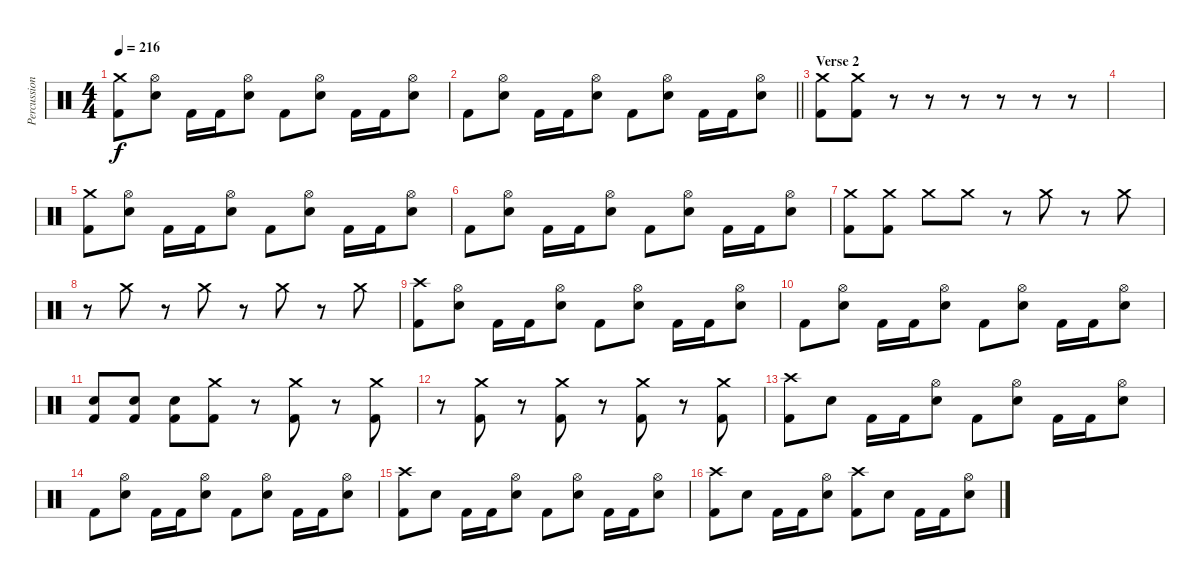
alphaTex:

\track ("Percussions" "Percussion") {instrument percussion}
\staff {score}
\articulation defaults
\ts (4 4)
\tempo 216
\clef neutral
\ks c
("Crash medium (hit)" "Kick (hit) 2").8{dy f} ("Hi-Hat (open)" "Electric Snare (hit)").8 "Kick (hit) 2".16 "Kick (hit) 2".16 ("Hi-Hat (open)" "Electric Snare (hit)").8 "Kick (hit) 2".8 ("Hi-Hat (open)" "Electric Snare (hit)").8 "Kick (hit) 2".16 "Kick (hit) 2".16 ("Hi-Hat (open)" "Electric Snare (hit)").8 |
\barLineRight lightlight "Kick (hit) 2".8
("Hi-Hat (open)" "Electric Snare (hit)").8 "Kick (hit) 2".16 "Kick (hit) 2".16 ("Hi-Hat (open)" "Electric Snare (hit)").8 "Kick (hit) 2".8 ("Hi-Hat (open)" "Electric Snare (hit)").8 "Kick (hit) 2".16 "Kick (hit) 2".16 ("Hi-Hat (open)" "Electric Snare (hit)").8 |
\section ("" "Verse 2")
("Crash medium (hit)" "Kick (hit) 2").8 ("Crash medium (hit)" "Kick (hit) 2").8 r.8 r.8 r.8 r.8 r.8 r.8 |
|
("Crash medium (hit)" "Kick (hit) 2").8 ("Hi-Hat (open)" "Electric Snare (hit)").8 "Kick (hit) 2".16 "Kick (hit) 2".16 ("Hi-Hat (open)" "Electric Snare (hit)").8 "Kick (hit) 2".8 ("Hi-Hat (open)" "Electric Snare (hit)").8 "Kick (hit) 2".16 "Kick (hit) 2".16 ("Hi-Hat (open)" "Electric Snare (hit)").8 |
"Kick (hit) 2".8 ("Hi-Hat (open)" "Electric Snare (hit)").8 "Kick (hit) 2".16 "Kick (hit) 2".16 ("Hi-Hat (open)" "Electric Snare (hit)").8 "Kick (hit) 2".8 ("Hi-Hat (open)" "Electric Snare (hit)").8 "Kick (hit) 2".16 "Kick (hit) 2".16 ("Hi-Hat (open)" "Electric Snare (hit)").8 |
("Crash medium (hit)" "Kick (hit) 2").8 ("Crash medium (hit)" "Kick (hit) 2").8 "Crash medium (hit)".8 "Crash medium (hit)".8 r.8 "Crash medium (hit)".8 r.8 "Crash medium (hit)".8 |
r.8 "Crash medium (hit)".8 r.8 "Crash medium (hit)".8 r.8 "Crash medium (hit)".8 r.8 "Crash medium (hit)".8 |
("Crash high (hit)" "Kick (hit) 2").8 ("Hi-Hat (open)" "Electric Snare (hit)").8 "Kick (hit) 2".16 "Kick (hit) 2".16 ("Hi-Hat (open)" "Electric Snare (hit)").8 "Kick (hit) 2".8 ("Hi-Hat (open)" "Electric Snare (hit)").8 "Kick (hit) 2".16 "Kick (hit) 2".16 ("Hi-Hat (open)" "Electric Snare (hit)").8 |
"Kick (hit) 2".8 ("Hi-Hat (open)" "Electric Snare (hit)").8 "Kick (hit) 2".16 "Kick (hit) 2".16 ("Hi-Hat (open)" "Electric Snare (hit)").8 "Kick (hit) 2".8 ("Hi-Hat (open)" "Electric Snare (hit)").8 "Kick (hit) 2".16 "Kick (hit) 2".16 ("Hi-Hat (open)" "Electric Snare (hit)").8 |
("Electric Snare (hit)" "Kick (hit) 2").8 ("Electric Snare (hit)" "Kick (hit) 2").8 ("Electric Snare (hit)" "Kick (hit) 2").8 ("Crash medium (hit)" "Kick (hit) 2").8 r.8 ("Crash medium (hit)" "Kick (hit) 2").8 r.8 ("Crash medium (hit)" "Kick (hit) 2").8 |
r.8 ("Crash medium (hit)" "Kick (hit) 2").8 r.8 ("Crash medium (hit)" "Kick (hit) 2").8 r.8 ("Crash medium (hit)" "Kick (hit) 2").8 r.8 ("Crash medium (hit)" "Kick (hit) 2").8 |
("Crash high (hit)" "Kick (hit) 2").8 "Electric Snare (hit)".8 "Kick (hit) 2".16 "Kick (hit) 2".16 ("Hi-Hat (open)" "Electric Snare (hit)").8 "Kick (hit) 2".8 ("Hi-Hat (open)" "Electric Snare (hit)").8 "Kick (hit) 2".16 "Kick (hit) 2".16 ("Hi-Hat (open)" "Electric Snare (hit)").8 |
"Kick (hit) 2".8 ("Hi-Hat (open)" "Electric Snare (hit)").8 "Kick (hit) 2".16 "Kick (hit) 2".16 ("Hi-Hat (open)" "Electric Snare (hit)").8 "Kick (hit) 2".8 ("Hi-Hat (open)" "Electric Snare (hit)").8 "Kick (hit) 2".16 "Kick (hit) 2".16 ("Hi-Hat (open)" "Electric Snare (hit)").8 |
("Crash high (hit)" "Kick (hit) 2").8 "Electric Snare (hit)".8 "Kick (hit) 2".16 "Kick (hit) 2".16 ("Hi-Hat (open)" "Electric Snare (hit)").8 "Kick (hit) 2".8 ("Hi-Hat (open)" "Electric Snare (hit)").8 "Kick (hit) 2".16 "Kick (hit) 2".16 ("Hi-Hat (open)" "Electric Snare (hit)").8 |
("Crash high (hit)" "Kick (hit) 2").8 "Electric Snare (hit)".8 "Kick (hit) 2".16 "Kick (hit) 2".16 ("Hi-Hat (open)" "Electric Snare (hit)").8 ("Crash high (hit)" "Kick (hit) 2").8 "Electric Snare (hit)".8 "Kick (hit) 2".16 "Kick (hit) 2".16 ("Hi-Hat (open)" "Electric Snare (hit)").8
